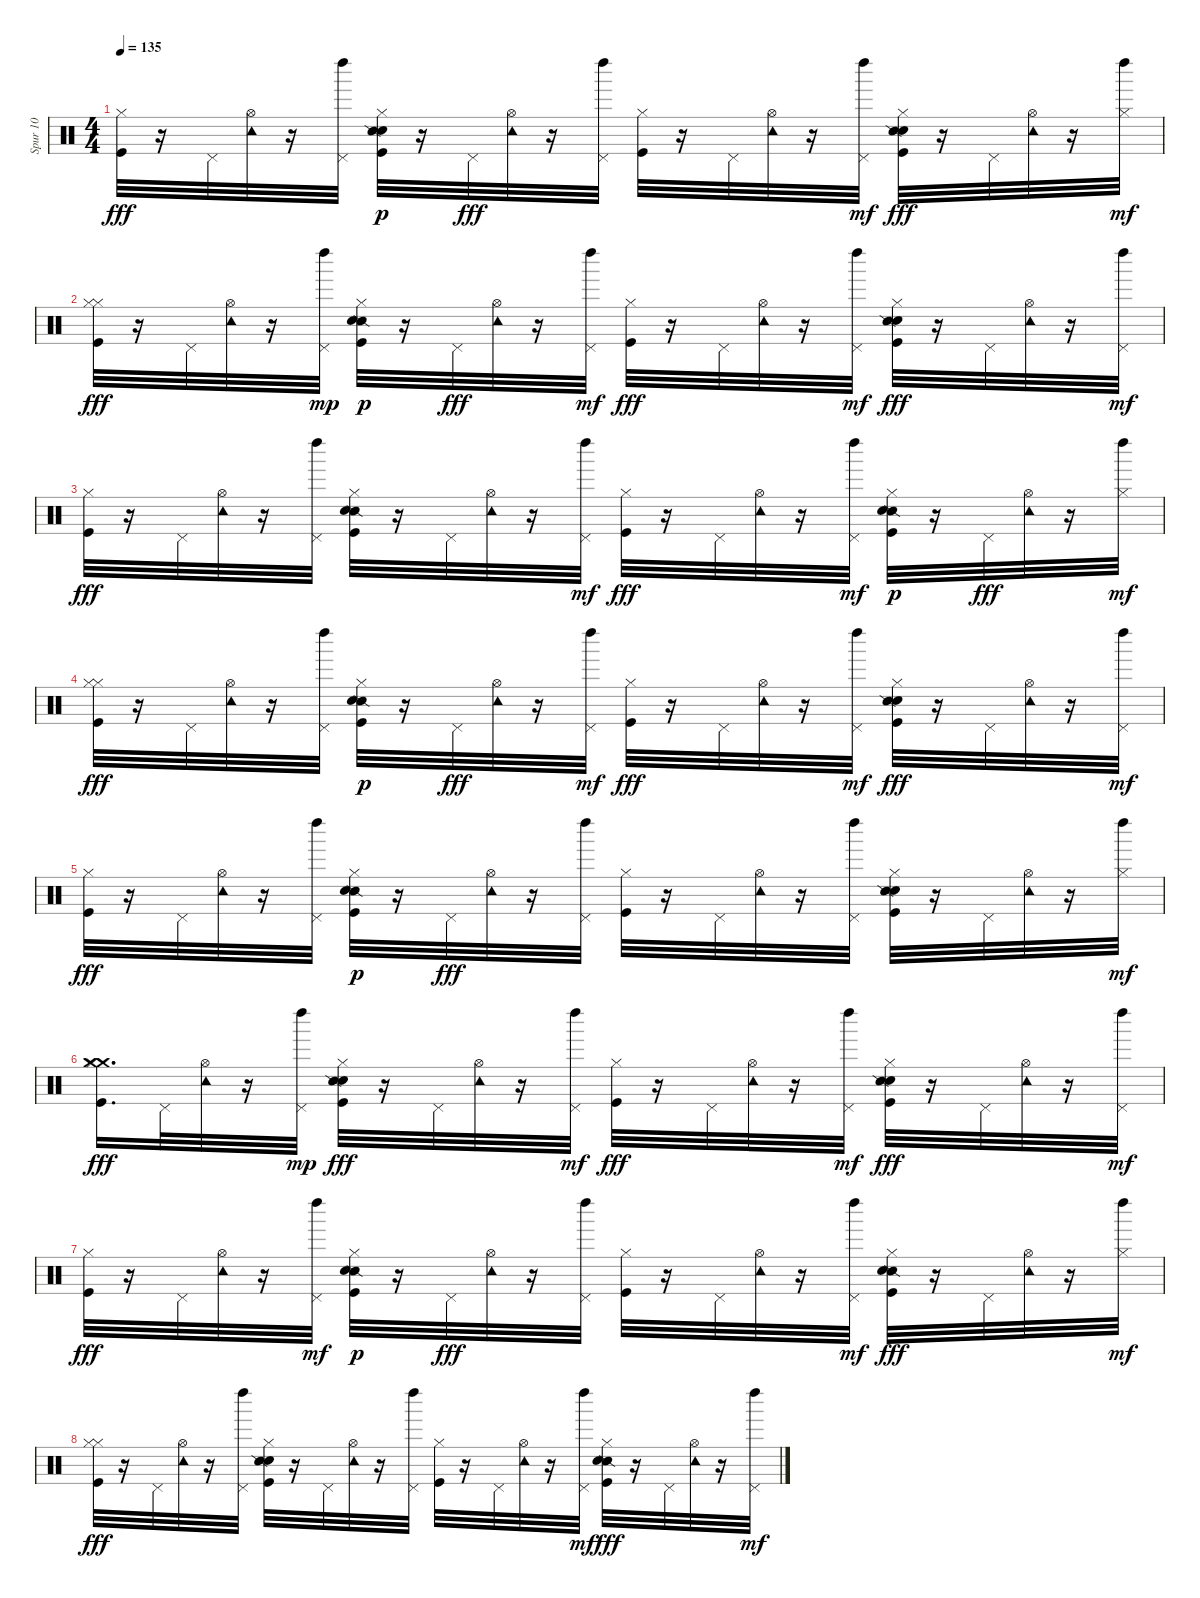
\track ("Spur 10" "Spur 10") {instrument percussion}
\staff {score}
\articulation defaults
\ts (4 4)
\tempo 135
\clef neutral
\ks c
("Kick (hit)" "Hi-Hat (closed)").32{dy fff} r.16 "Pedal Hi-Hat (hit)".32 ("Tambourine (hit)" "Hi-Hat (open)").32 r.16 ("Left Maraca (hit)" "Pedal Hi-Hat (hit)").32 ("Hi-Hat (closed)" "Kick (hit)" "Hand Clap (hit)" "Snare (side stick) 2").32{dy p} r.16 "Pedal Hi-Hat (hit)".32{dy fff} ("Hi-Hat (open)" "Tambourine (hit)").32 r.16 ("Left Maraca (hit)" "Pedal Hi-Hat (hit)").32 ("Hi-Hat (closed)" "Kick (hit)").32 r.16 "Pedal Hi-Hat (hit)".32 ("Tambourine (hit)" "Hi-Hat (open)").32 r.16 ("Pedal Hi-Hat (hit)" "Left Maraca (hit)").32{dy mf} ("Kick (hit)" "Hand Clap (hit)" "Snare (side stick) 2" "Hi-Hat (closed)").32{dy fff} r.16 "Pedal Hi-Hat (hit)".32 ("Tambourine (hit)" "Hi-Hat (open)").32 r.16 ("Left Maraca (hit)" "Hi-Hat (closed)").32{dy mf} |
("Kick (hit)" "Hi-Hat (closed)" "Hi-Hat (closed)").32{dy fff} r.16 "Pedal Hi-Hat (hit)".32 ("Hi-Hat (open)" "Tambourine (hit)").32 r.16 ("Pedal Hi-Hat (hit)" "Left Maraca (hit)").32{dy mp} ("Hi-Hat (closed)" "Kick (hit)" "Snare (side stick) 2" "Hand Clap (hit)").32{dy p} r.16 "Pedal Hi-Hat (hit)".32{dy fff} ("Tambourine (hit)" "Hi-Hat (open)").32 r.16 ("Pedal Hi-Hat (hit)" "Left Maraca (hit)").32{dy mf} ("Hi-Hat (closed)" "Kick (hit)").32{dy fff} r.16 "Pedal Hi-Hat (hit)".32 ("Hi-Hat (open)" "Tambourine (hit)").32 r.16 ("Pedal Hi-Hat (hit)" "Left Maraca (hit)").32{dy mf} ("Hand Clap (hit)" "Hi-Hat (closed)" "Snare (side stick) 2" "Kick (hit)").32{dy fff} r.16 "Pedal Hi-Hat (hit)".32 ("Hi-Hat (open)" "Tambourine (hit)").32 r.16 ("Pedal Hi-Hat (hit)" "Left Maraca (hit)").32{dy mf} |
("Kick (hit)" "Hi-Hat (closed)").32{dy fff} r.16 "Pedal Hi-Hat (hit)".32 ("Hi-Hat (open)" "Tambourine (hit)").32 r.16 ("Left Maraca (hit)" "Pedal Hi-Hat (hit)").32 ("Snare (side stick) 2" "Hand Clap (hit)" "Kick (hit)" "Hi-Hat (closed)").32 r.16 "Pedal Hi-Hat (hit)".32 ("Tambourine (hit)" "Hi-Hat (open)").32 r.16 ("Pedal Hi-Hat (hit)" "Left Maraca (hit)").32{dy mf} ("Kick (hit)" "Hi-Hat (closed)").32{dy fff} r.16 "Pedal Hi-Hat (hit)".32 ("Tambourine (hit)" "Hi-Hat (open)").32 r.16 ("Pedal Hi-Hat (hit)" "Left Maraca (hit)").32{dy mf} ("Hi-Hat (closed)" "Snare (side stick) 2" "Kick (hit)" "Hand Clap (hit)").32{dy p} r.16 "Pedal Hi-Hat (hit)".32{dy fff} ("Hi-Hat (open)" "Tambourine (hit)").32 r.16 ("Hi-Hat (closed)" "Left Maraca (hit)").32{dy mf} |
("Hi-Hat (closed)" "Hi-Hat (closed)" "Kick (hit)").32{dy fff} r.16 "Pedal Hi-Hat (hit)".32 ("Tambourine (hit)" "Hi-Hat (open)").32 r.16 ("Left Maraca (hit)" "Pedal Hi-Hat (hit)").32 ("Hi-Hat (closed)" "Kick (hit)" "Snare (side stick) 2" "Hand Clap (hit)").32{dy p} r.16 "Pedal Hi-Hat (hit)".32{dy fff} ("Hi-Hat (open)" "Tambourine (hit)").32 r.16 ("Pedal Hi-Hat (hit)" "Left Maraca (hit)").32{dy mf} ("Hi-Hat (closed)" "Kick (hit)").32{dy fff} r.16 "Pedal Hi-Hat (hit)".32 ("Hi-Hat (open)" "Tambourine (hit)").32 r.16 ("Left Maraca (hit)" "Pedal Hi-Hat (hit)").32{dy mf} ("Hand Clap (hit)" "Snare (side stick) 2" "Kick (hit)" "Hi-Hat (closed)").32{dy fff} r.16 "Pedal Hi-Hat (hit)".32 ("Hi-Hat (open)" "Tambourine (hit)").32 r.16 ("Pedal Hi-Hat (hit)" "Left Maraca (hit)").32{dy mf} |
("Kick (hit)" "Hi-Hat (closed)").32{dy fff} r.16 "Pedal Hi-Hat (hit)".32 ("Hi-Hat (open)" "Tambourine (hit)").32 r.16 ("Left Maraca (hit)" "Pedal Hi-Hat (hit)").32 ("Kick (hit)" "Snare (side stick) 2" "Hi-Hat (closed)" "Hand Clap (hit)").32{dy p} r.16 "Pedal Hi-Hat (hit)".32{dy fff} ("Hi-Hat (open)" "Tambourine (hit)").32 r.16 ("Left Maraca (hit)" "Pedal Hi-Hat (hit)").32 ("Kick (hit)" "Hi-Hat (closed)").32 r.16 "Pedal Hi-Hat (hit)".32 ("Hi-Hat (open)" "Tambourine (hit)").32 r.16 ("Left Maraca (hit)" "Pedal Hi-Hat (hit)").32 ("Kick (hit)" "Hand Clap (hit)" "Snare (side stick) 2" "Hi-Hat (closed)").32 r.16 "Pedal Hi-Hat (hit)".32 ("Tambourine (hit)" "Hi-Hat (open)").32 r.16 ("Left Maraca (hit)" "Hi-Hat (closed)").32{dy mf} |
("Kick (hit)" "Crash medium (hit)" "Crash medium (hit)" "Hi-Hat (closed)").16{d dy fff} "Pedal Hi-Hat (hit)".32 ("Hi-Hat (open)" "Tambourine (hit)").32 r.16 ("Pedal Hi-Hat (hit)" "Left Maraca (hit)").32{dy mp} ("Hand Clap (hit)" "Hi-Hat (closed)" "Kick (hit)" "Snare (side stick) 2").32{dy fff} r.16 "Pedal Hi-Hat (hit)".32 ("Hi-Hat (open)" "Tambourine (hit)").32 r.16 ("Pedal Hi-Hat (hit)" "Left Maraca (hit)").32{dy mf} ("Hi-Hat (closed)" "Kick (hit)").32{dy fff} r.16 "Pedal Hi-Hat (hit)".32 ("Hi-Hat (open)" "Tambourine (hit)").32 r.16 ("Pedal Hi-Hat (hit)" "Left Maraca (hit)").32{dy mf} ("Hand Clap (hit)" "Hi-Hat (closed)" "Kick (hit)" "Snare (side stick) 2").32{dy fff} r.16 "Pedal Hi-Hat (hit)".32 ("Tambourine (hit)" "Hi-Hat (open)").32 r.16 ("Left Maraca (hit)" "Pedal Hi-Hat (hit)").32{dy mf} |
("Hi-Hat (closed)" "Kick (hit)").32{dy fff} r.16 "Pedal Hi-Hat (hit)".32 ("Hi-Hat (open)" "Tambourine (hit)").32 r.16 ("Pedal Hi-Hat (hit)" "Left Maraca (hit)").32{dy mf} ("Kick (hit)" "Snare (side stick) 2" "Hi-Hat (closed)" "Hand Clap (hit)").32{dy p} r.16 "Pedal Hi-Hat (hit)".32{dy fff} ("Hi-Hat (open)" "Tambourine (hit)").32 r.16 ("Left Maraca (hit)" "Pedal Hi-Hat (hit)").32 ("Kick (hit)" "Hi-Hat (closed)").32 r.16 "Pedal Hi-Hat (hit)".32 ("Hi-Hat (open)" "Tambourine (hit)").32 r.16 ("Pedal Hi-Hat (hit)" "Left Maraca (hit)").32{dy mf} ("Kick (hit)" "Snare (side stick) 2" "Hand Clap (hit)" "Hi-Hat (closed)").32{dy fff} r.16 "Pedal Hi-Hat (hit)".32 ("Tambourine (hit)" "Hi-Hat (open)").32 r.16 ("Hi-Hat (closed)" "Left Maraca (hit)").32{dy mf} |
("Kick (hit)" "Hi-Hat (closed)" "Hi-Hat (closed)").32{dy fff} r.16 "Pedal Hi-Hat (hit)".32 ("Tambourine (hit)" "Hi-Hat (open)").32 r.16 ("Left Maraca (hit)" "Pedal Hi-Hat (hit)").32 ("Kick (hit)" "Hand Clap (hit)" "Hi-Hat (closed)" "Snare (side stick) 2").32 r.16 "Pedal Hi-Hat (hit)".32 ("Hi-Hat (open)" "Tambourine (hit)").32 r.16 ("Left Maraca (hit)" "Pedal Hi-Hat (hit)").32 ("Kick (hit)" "Hi-Hat (closed)").32 r.16 "Pedal Hi-Hat (hit)".32 ("Tambourine (hit)" "Hi-Hat (open)").32 r.16 ("Pedal Hi-Hat (hit)" "Left Maraca (hit)").32{dy mf} ("Snare (side stick) 2" "Kick (hit)" "Hand Clap (hit)" "Hi-Hat (closed)").32{dy fff} r.16 "Pedal Hi-Hat (hit)".32 ("Hi-Hat (open)" "Tambourine (hit)").32 r.16 ("Left Maraca (hit)" "Pedal Hi-Hat (hit)").32{dy mf}
